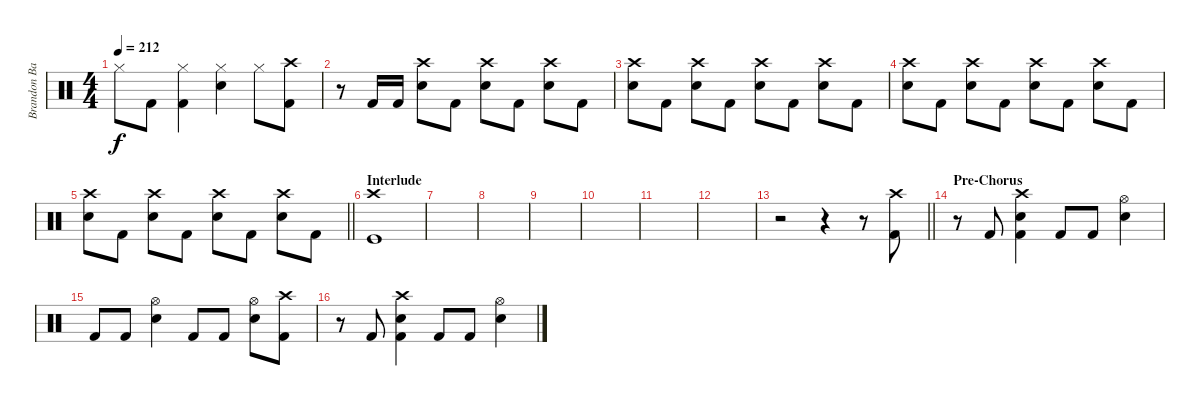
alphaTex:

\track ("Brandon Barnes - Drums" "Brandon Ba") {instrument percussion}
\staff {score}
\articulation defaults
\ts (4 4)
\tempo 212
\clef neutral
\ks c "Hi-Hat (closed)".8{dy f} "Kick (hit) 2".8
("Kick (hit) 2" "Hi-Hat (closed)").4 ("Hi-Hat (closed)" "Snare (hit) 2").4 "Hi-Hat (closed)".8 ("Crash high (hit)" "Kick (hit) 2").8 |
r.8 "Kick (hit) 2".16 "Kick (hit) 2".16 ("Crash high (hit)" "Snare (hit) 2").8 "Kick (hit) 2".8 ("Crash high (hit)" "Snare (hit) 2").8 "Kick (hit) 2".8 ("Crash high (hit)" "Snare (hit) 2").8 "Kick (hit) 2".8 |
("Crash high (hit)" "Snare (hit) 2").8 "Kick (hit) 2".8 ("Crash high (hit)" "Snare (hit) 2").8 "Kick (hit) 2".8 ("Crash high (hit)" "Snare (hit) 2").8 "Kick (hit) 2".8 ("Crash high (hit)" "Snare (hit) 2").8 "Kick (hit) 2".8 |
("Crash high (hit)" "Snare (hit) 2").8 "Kick (hit) 2".8 ("Crash high (hit)" "Snare (hit) 2").8 "Kick (hit) 2".8 ("Crash high (hit)" "Snare (hit) 2").8 "Kick (hit) 2".8 ("Crash high (hit)" "Snare (hit) 2").8 "Kick (hit) 2".8 |
\barLineRight lightlight
("Crash high (hit)" "Snare (hit) 2").8 "Kick (hit) 2".8 ("Crash high (hit)" "Snare (hit) 2").8 "Kick (hit) 2".8 ("Crash high (hit)" "Snare (hit) 2").8 "Kick (hit) 2".8 ("Crash high (hit)" "Snare (hit) 2").8 "Kick (hit) 2".8 |
\section ("" "Interlude")
("Crash high (hit)" "Kick (hit)").1 |
|
|
|
|
|
|
\barLineRight lightlight
r.2 r.4 r.8 ("Kick (hit) 2" "Crash high (hit)").8 |
\section ("" "Pre-Chorus")
r.8 "Kick (hit) 2".8 ("Kick (hit) 2" "Snare (hit) 2" "Crash high (hit)").4 "Kick (hit) 2".8 "Kick (hit) 2".8 ("Snare (hit) 2" "Hi-Hat (open)").4 |
"Kick (hit) 2".8 "Kick (hit) 2".8 ("Snare (hit) 2" "Hi-Hat (open)").4 "Kick (hit) 2".8 "Kick (hit) 2".8 ("Snare (hit) 2" "Hi-Hat (open)").8 ("Kick (hit) 2" "Crash high (hit)").8 |
r.8 "Kick (hit) 2".8 ("Kick (hit) 2" "Snare (hit) 2" "Crash high (hit)").4 "Kick (hit) 2".8 "Kick (hit) 2".8 ("Snare (hit) 2" "Hi-Hat (open)").4
